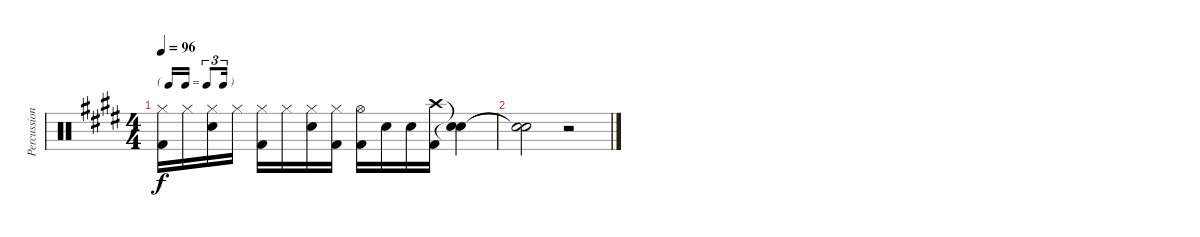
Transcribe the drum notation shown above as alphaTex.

\track ("Percussion" "Percussion") {instrument percussion}
\staff {score}
\articulation defaults
\ts (4 4)
\tf triplet16th
\tempo 96
\clef neutral
\ks e
("Hi-Hat (closed)" "Kick (hit) 2").16{dy f} "Hi-Hat (closed)".16 ("Hi-Hat (closed)" "Snare (hit) 2").16 "Hi-Hat (closed)".16 ("Hi-Hat (closed)" "Kick (hit) 2").16 "Hi-Hat (closed)".16 ("Hi-Hat (closed)" "Snare (hit) 2").16 ("Hi-Hat (closed)" "Kick (hit) 2").16 ("Hi-Hat (open)" "Kick (hit) 2").16 "Snare (hit) 2".16 "Snare (hit) 2".16 ("Crash high (hit)" "Kick (hit) 2").16 ("Snare (hit)"{t} "Snare (hit)"{t}).4 |
("Snare (hit)"{t} "Snare (hit)"{t}).2 r.2
